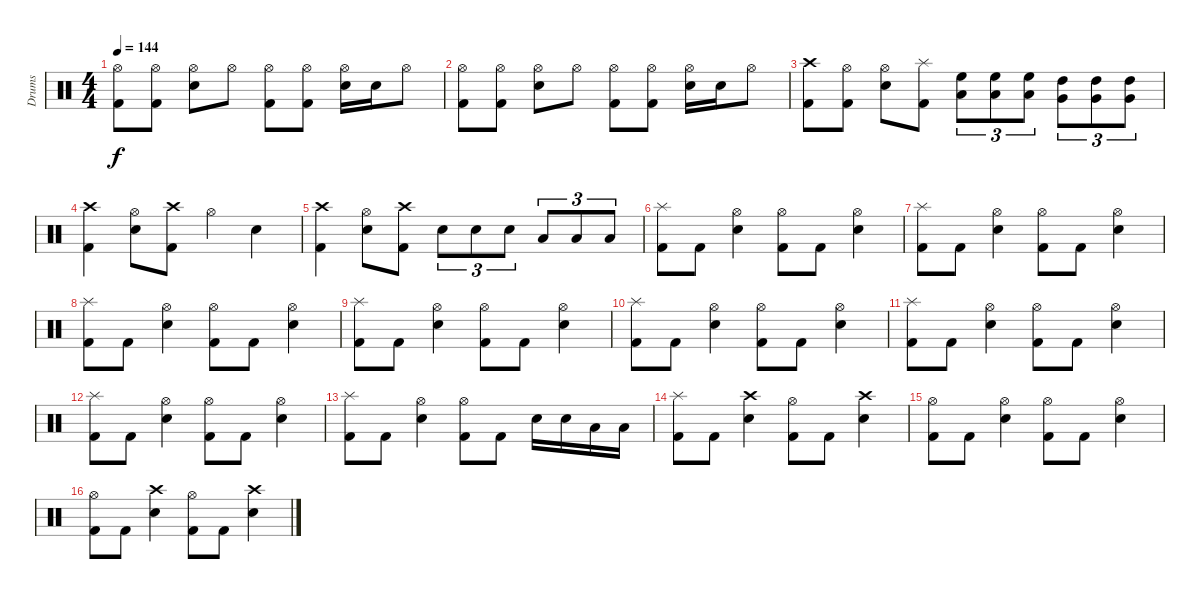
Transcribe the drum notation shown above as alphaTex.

\track ("Drums" "Drums") {instrument percussion}
\staff {score}
\articulation defaults
\ts (4 4)
\tempo 144
\clef neutral
\ks c
("Kick (hit) 2" "Hi-Hat (open)").8{dy f} ("Kick (hit) 2" "Hi-Hat (open)").8 ("Snare (hit) 2" "Hi-Hat (open)").8 "Hi-Hat (open)".8 ("Kick (hit) 2" "Hi-Hat (open)").8 ("Kick (hit) 2" "Hi-Hat (open)").8 ("Snare (hit) 2" "Hi-Hat (open)").16 "Snare (hit) 2".16 "Hi-Hat (open)".8 |
("Kick (hit) 2" "Hi-Hat (open)").8 ("Kick (hit) 2" "Hi-Hat (open)").8 ("Snare (hit) 2" "Hi-Hat (open)").8 "Hi-Hat (open)".8 ("Kick (hit) 2" "Hi-Hat (open)").8 ("Kick (hit) 2" "Hi-Hat (open)").8 ("Snare (hit) 2" "Hi-Hat (open)").16 "Snare (hit) 2".16 "Hi-Hat (open)".8 |
("Kick (hit) 2" "Crash high (hit)").8 ("Kick (hit) 2" "Hi-Hat (open)").8 ("Snare (hit) 2" "Hi-Hat (open)").8 ("Kick (hit) 2" "Splash (hit)").8 ("High Floor Tom (hit)" "Low Floor Tom (hit)").8{tu (3 2)} ("High Floor Tom (hit)" "Low Floor Tom (hit)").8{tu (3 2)} ("High Floor Tom (hit)" "Low Floor Tom (hit)").8{tu (3 2)} ("High Tom (hit)" "Very Low Tom (hit)").8{tu (3 2)} ("High Tom (hit)" "Very Low Tom (hit)").8{tu (3 2)} ("High Tom (hit)" "Very Low Tom (hit)").8{tu (3 2)} |
("Kick (hit) 2" "Crash high (hit)").4 ("Snare (hit) 2" "Hi-Hat (open)").8 ("Kick (hit) 2" "Crash high (hit)").8 "Hi-Hat (open)".4 "Snare (hit) 2".4 |
("Kick (hit) 2" "Crash high (hit)").4 ("Snare (hit) 2" "Hi-Hat (open)").8 ("Kick (hit) 2" "Crash high (hit)").8 "Snare (hit) 2".8{tu (3 2)} "Snare (hit) 2".8{tu (3 2)} "Snare (hit) 2".8{tu (3 2)} "Low Tom (hit)".8{tu (3 2)} "Low Tom (hit)".8{tu (3 2)} "Low Tom (hit)".8{tu (3 2)} |
("Kick (hit) 2" "Splash (hit)").8 "Kick (hit) 2".8 ("Snare (hit) 2" "Hi-Hat (open)").4 ("Kick (hit) 2" "Hi-Hat (open)").8 "Kick (hit) 2".8 ("Snare (hit) 2" "Hi-Hat (open)").4 |
("Kick (hit) 2" "Splash (hit)").8 "Kick (hit) 2".8 ("Snare (hit) 2" "Hi-Hat (open)").4 ("Kick (hit) 2" "Hi-Hat (open)").8 "Kick (hit) 2".8 ("Snare (hit) 2" "Hi-Hat (open)").4 |
("Kick (hit) 2" "Splash (hit)").8 "Kick (hit) 2".8 ("Snare (hit) 2" "Hi-Hat (open)").4 ("Kick (hit) 2" "Hi-Hat (open)").8 "Kick (hit) 2".8 ("Snare (hit) 2" "Hi-Hat (open)").4 |
("Kick (hit) 2" "Splash (hit)").8 "Kick (hit) 2".8 ("Snare (hit) 2" "Hi-Hat (open)").4 ("Kick (hit) 2" "Hi-Hat (open)").8 "Kick (hit) 2".8 ("Snare (hit) 2" "Hi-Hat (open)").4 |
("Kick (hit) 2" "Splash (hit)").8 "Kick (hit) 2".8 ("Snare (hit) 2" "Hi-Hat (open)").4 ("Kick (hit) 2" "Hi-Hat (open)").8 "Kick (hit) 2".8 ("Snare (hit) 2" "Hi-Hat (open)").4 |
("Kick (hit) 2" "Splash (hit)").8 "Kick (hit) 2".8 ("Snare (hit) 2" "Hi-Hat (open)").4 ("Kick (hit) 2" "Hi-Hat (open)").8 "Kick (hit) 2".8 ("Snare (hit) 2" "Hi-Hat (open)").4 |
("Kick (hit) 2" "Splash (hit)").8 "Kick (hit) 2".8 ("Snare (hit) 2" "Hi-Hat (open)").4 ("Kick (hit) 2" "Hi-Hat (open)").8 "Kick (hit) 2".8 ("Snare (hit) 2" "Hi-Hat (open)").4 |
("Kick (hit) 2" "Splash (hit)").8 "Kick (hit) 2".8 ("Snare (hit) 2" "Hi-Hat (open)").4 ("Kick (hit) 2" "Hi-Hat (open)").8 "Kick (hit) 2".8 "Snare (hit) 2".16 "Snare (hit) 2".16 "Low Tom (hit)".16 "Low Tom (hit)".16 |
("Kick (hit) 2" "Splash (hit)").8 "Kick (hit) 2".8 ("Snare (hit) 2" "Crash high (hit)").4 ("Kick (hit) 2" "Hi-Hat (open)").8 "Kick (hit) 2".8 ("Snare (hit) 2" "Crash high (hit)").4 |
("Kick (hit) 2" "Hi-Hat (open)").8 "Kick (hit) 2".8 ("Snare (hit) 2" "Hi-Hat (open)").4 ("Kick (hit) 2" "Hi-Hat (open)").8 "Kick (hit) 2".8 ("Snare (hit) 2" "Hi-Hat (open)").4 |
("Kick (hit) 2" "Hi-Hat (open)").8 "Kick (hit) 2".8 ("Snare (hit) 2" "Crash high (hit)").4 ("Kick (hit) 2" "Hi-Hat (open)").8 "Kick (hit) 2".8 ("Snare (hit) 2" "Crash high (hit)").4
